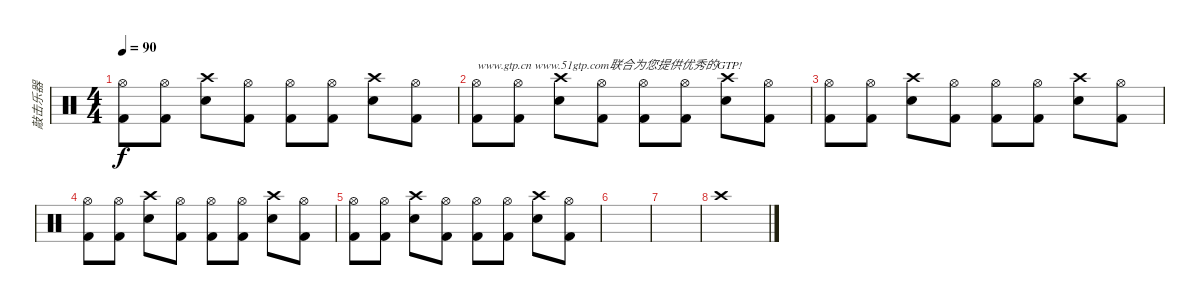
\track ("敲击乐器" "敲击乐器") {instrument percussion bank 8}
\staff {score}
\articulation defaults
\ts (4 4)
\tempo 90
\clef neutral
\ks c
("Hi-Hat (open)" "Kick (hit) 2").8{dy f} ("Hi-Hat (open)" "Kick (hit) 2").8 ("Crash high (hit)" "Electric Snare (hit)").8 ("Hi-Hat (open)" "Kick (hit) 2").8 ("Hi-Hat (open)" "Kick (hit) 2").8 ("Hi-Hat (open)" "Kick (hit) 2").8 ("Crash high (hit)" "Electric Snare (hit)").8 ("Hi-Hat (open)" "Kick (hit) 2").8 |
("Hi-Hat (open)" "Kick (hit) 2").8{txt "www.gtp.cn www.51gtp.com联合为您提供优秀的GTP!"} ("Hi-Hat (open)" "Kick (hit) 2").8 ("Crash high (hit)" "Electric Snare (hit)").8 ("Hi-Hat (open)" "Kick (hit) 2").8 ("Hi-Hat (open)" "Kick (hit) 2").8 ("Hi-Hat (open)" "Kick (hit) 2").8 ("Crash high (hit)" "Electric Snare (hit)").8 ("Hi-Hat (open)" "Kick (hit) 2").8 |
("Hi-Hat (open)" "Kick (hit) 2").8 ("Hi-Hat (open)" "Kick (hit) 2").8 ("Crash high (hit)" "Electric Snare (hit)").8 ("Hi-Hat (open)" "Kick (hit) 2").8 ("Hi-Hat (open)" "Kick (hit) 2").8 ("Hi-Hat (open)" "Kick (hit) 2").8 ("Crash high (hit)" "Electric Snare (hit)").8 ("Hi-Hat (open)" "Kick (hit) 2").8 |
("Hi-Hat (open)" "Kick (hit) 2").8 ("Hi-Hat (open)" "Kick (hit) 2").8 ("Crash high (hit)" "Electric Snare (hit)").8 ("Hi-Hat (open)" "Kick (hit) 2").8 ("Hi-Hat (open)" "Kick (hit) 2").8 ("Hi-Hat (open)" "Kick (hit) 2").8 ("Crash high (hit)" "Electric Snare (hit)").8 ("Hi-Hat (open)" "Kick (hit) 2").8 |
("Hi-Hat (open)" "Kick (hit) 2").8 ("Hi-Hat (open)" "Kick (hit) 2").8 ("Crash high (hit)" "Electric Snare (hit)").8 ("Hi-Hat (open)" "Kick (hit) 2").8 ("Hi-Hat (open)" "Kick (hit) 2").8 ("Hi-Hat (open)" "Kick (hit) 2").8 ("Crash high (hit)" "Electric Snare (hit)").8 ("Hi-Hat (open)" "Kick (hit) 2").8 |
|
|
"Crash high (hit)".1
